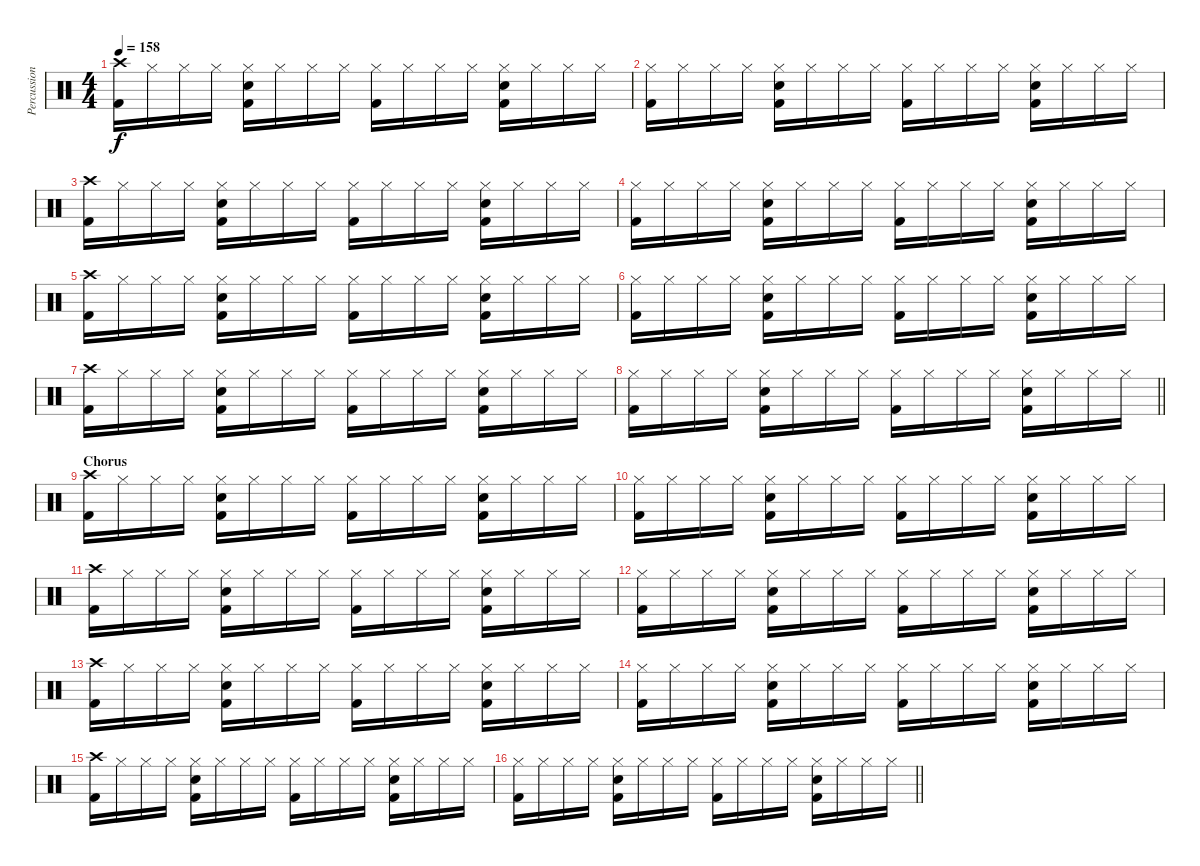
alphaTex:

\track ("Percussion" "Percussion") {instrument percussion}
\staff {score}
\articulation defaults
\ts (4 4)
\tempo 158
\clef neutral
\ks c
("Crash high (hit)" "Kick (hit) 2").16{dy f} "Hi-Hat (closed)".16 "Hi-Hat (closed)".16 "Hi-Hat (closed)".16 ("Hi-Hat (closed)" "Electric Snare (hit)" "Kick (hit) 2").16 "Hi-Hat (closed)".16 "Hi-Hat (closed)".16 "Hi-Hat (closed)".16 ("Hi-Hat (closed)" "Kick (hit) 2").16 "Hi-Hat (closed)".16 "Hi-Hat (closed)".16 "Hi-Hat (closed)".16 ("Hi-Hat (closed)" "Electric Snare (hit)" "Kick (hit) 2").16 "Hi-Hat (closed)".16 "Hi-Hat (closed)".16 "Hi-Hat (closed)".16 |
("Hi-Hat (closed)" "Kick (hit) 2").16 "Hi-Hat (closed)".16 "Hi-Hat (closed)".16 "Hi-Hat (closed)".16 ("Hi-Hat (closed)" "Electric Snare (hit)" "Kick (hit) 2").16 "Hi-Hat (closed)".16 "Hi-Hat (closed)".16 "Hi-Hat (closed)".16 ("Hi-Hat (closed)" "Kick (hit) 2").16 "Hi-Hat (closed)".16 "Hi-Hat (closed)".16 "Hi-Hat (closed)".16 ("Hi-Hat (closed)" "Electric Snare (hit)" "Kick (hit) 2").16 "Hi-Hat (closed)".16 "Hi-Hat (closed)".16 "Hi-Hat (closed)".16 |
("Crash high (hit)" "Kick (hit) 2").16 "Hi-Hat (closed)".16 "Hi-Hat (closed)".16 "Hi-Hat (closed)".16 ("Hi-Hat (closed)" "Electric Snare (hit)" "Kick (hit) 2").16 "Hi-Hat (closed)".16 "Hi-Hat (closed)".16 "Hi-Hat (closed)".16 ("Hi-Hat (closed)" "Kick (hit) 2").16 "Hi-Hat (closed)".16 "Hi-Hat (closed)".16 "Hi-Hat (closed)".16 ("Hi-Hat (closed)" "Electric Snare (hit)" "Kick (hit) 2").16 "Hi-Hat (closed)".16 "Hi-Hat (closed)".16 "Hi-Hat (closed)".16 |
("Hi-Hat (closed)" "Kick (hit) 2").16 "Hi-Hat (closed)".16 "Hi-Hat (closed)".16 "Hi-Hat (closed)".16 ("Hi-Hat (closed)" "Electric Snare (hit)" "Kick (hit) 2").16 "Hi-Hat (closed)".16 "Hi-Hat (closed)".16 "Hi-Hat (closed)".16 ("Hi-Hat (closed)" "Kick (hit) 2").16 "Hi-Hat (closed)".16 "Hi-Hat (closed)".16 "Hi-Hat (closed)".16 ("Hi-Hat (closed)" "Electric Snare (hit)" "Kick (hit) 2").16 "Hi-Hat (closed)".16 "Hi-Hat (closed)".16 "Hi-Hat (closed)".16 |
("Crash high (hit)" "Kick (hit) 2").16 "Hi-Hat (closed)".16 "Hi-Hat (closed)".16 "Hi-Hat (closed)".16 ("Hi-Hat (closed)" "Electric Snare (hit)" "Kick (hit) 2").16 "Hi-Hat (closed)".16 "Hi-Hat (closed)".16 "Hi-Hat (closed)".16 ("Hi-Hat (closed)" "Kick (hit) 2").16 "Hi-Hat (closed)".16 "Hi-Hat (closed)".16 "Hi-Hat (closed)".16 ("Hi-Hat (closed)" "Electric Snare (hit)" "Kick (hit) 2").16 "Hi-Hat (closed)".16 "Hi-Hat (closed)".16 "Hi-Hat (closed)".16 |
("Hi-Hat (closed)" "Kick (hit) 2").16 "Hi-Hat (closed)".16 "Hi-Hat (closed)".16 "Hi-Hat (closed)".16 ("Hi-Hat (closed)" "Electric Snare (hit)" "Kick (hit) 2").16 "Hi-Hat (closed)".16 "Hi-Hat (closed)".16 "Hi-Hat (closed)".16 ("Hi-Hat (closed)" "Kick (hit) 2").16 "Hi-Hat (closed)".16 "Hi-Hat (closed)".16 "Hi-Hat (closed)".16 ("Hi-Hat (closed)" "Electric Snare (hit)" "Kick (hit) 2").16 "Hi-Hat (closed)".16 "Hi-Hat (closed)".16 "Hi-Hat (closed)".16 |
("Crash high (hit)" "Kick (hit) 2").16 "Hi-Hat (closed)".16 "Hi-Hat (closed)".16 "Hi-Hat (closed)".16 ("Hi-Hat (closed)" "Electric Snare (hit)" "Kick (hit) 2").16 "Hi-Hat (closed)".16 "Hi-Hat (closed)".16 "Hi-Hat (closed)".16 ("Hi-Hat (closed)" "Kick (hit) 2").16 "Hi-Hat (closed)".16 "Hi-Hat (closed)".16 "Hi-Hat (closed)".16 ("Hi-Hat (closed)" "Electric Snare (hit)" "Kick (hit) 2").16 "Hi-Hat (closed)".16 "Hi-Hat (closed)".16 "Hi-Hat (closed)".16 |
\barLineRight lightlight
("Hi-Hat (closed)" "Kick (hit) 2").16 "Hi-Hat (closed)".16 "Hi-Hat (closed)".16 "Hi-Hat (closed)".16 ("Hi-Hat (closed)" "Electric Snare (hit)" "Kick (hit) 2").16 "Hi-Hat (closed)".16 "Hi-Hat (closed)".16 "Hi-Hat (closed)".16 ("Hi-Hat (closed)" "Kick (hit) 2").16 "Hi-Hat (closed)".16 "Hi-Hat (closed)".16 "Hi-Hat (closed)".16 ("Hi-Hat (closed)" "Electric Snare (hit)" "Kick (hit) 2").16 "Hi-Hat (closed)".16 "Hi-Hat (closed)".16 "Hi-Hat (closed)".16 |
\section ("" "Chorus")
("Crash high (hit)" "Kick (hit) 2").16 "Hi-Hat (closed)".16 "Hi-Hat (closed)".16 "Hi-Hat (closed)".16 ("Hi-Hat (closed)" "Electric Snare (hit)" "Kick (hit) 2").16 "Hi-Hat (closed)".16 "Hi-Hat (closed)".16 "Hi-Hat (closed)".16 ("Hi-Hat (closed)" "Kick (hit) 2").16 "Hi-Hat (closed)".16 "Hi-Hat (closed)".16 "Hi-Hat (closed)".16 ("Hi-Hat (closed)" "Electric Snare (hit)" "Kick (hit) 2").16 "Hi-Hat (closed)".16 "Hi-Hat (closed)".16 "Hi-Hat (closed)".16 |
("Hi-Hat (closed)" "Kick (hit) 2").16 "Hi-Hat (closed)".16 "Hi-Hat (closed)".16 "Hi-Hat (closed)".16 ("Hi-Hat (closed)" "Electric Snare (hit)" "Kick (hit) 2").16 "Hi-Hat (closed)".16 "Hi-Hat (closed)".16 "Hi-Hat (closed)".16 ("Hi-Hat (closed)" "Kick (hit) 2").16 "Hi-Hat (closed)".16 "Hi-Hat (closed)".16 "Hi-Hat (closed)".16 ("Hi-Hat (closed)" "Electric Snare (hit)" "Kick (hit) 2").16 "Hi-Hat (closed)".16 "Hi-Hat (closed)".16 "Hi-Hat (closed)".16 |
("Crash high (hit)" "Kick (hit) 2").16 "Hi-Hat (closed)".16 "Hi-Hat (closed)".16 "Hi-Hat (closed)".16 ("Hi-Hat (closed)" "Electric Snare (hit)" "Kick (hit) 2").16 "Hi-Hat (closed)".16 "Hi-Hat (closed)".16 "Hi-Hat (closed)".16 ("Hi-Hat (closed)" "Kick (hit) 2").16 "Hi-Hat (closed)".16 "Hi-Hat (closed)".16 "Hi-Hat (closed)".16 ("Hi-Hat (closed)" "Electric Snare (hit)" "Kick (hit) 2").16 "Hi-Hat (closed)".16 "Hi-Hat (closed)".16 "Hi-Hat (closed)".16 |
("Hi-Hat (closed)" "Kick (hit) 2").16 "Hi-Hat (closed)".16 "Hi-Hat (closed)".16 "Hi-Hat (closed)".16 ("Hi-Hat (closed)" "Electric Snare (hit)" "Kick (hit) 2").16 "Hi-Hat (closed)".16 "Hi-Hat (closed)".16 "Hi-Hat (closed)".16 ("Hi-Hat (closed)" "Kick (hit) 2").16 "Hi-Hat (closed)".16 "Hi-Hat (closed)".16 "Hi-Hat (closed)".16 ("Hi-Hat (closed)" "Electric Snare (hit)" "Kick (hit) 2").16 "Hi-Hat (closed)".16 "Hi-Hat (closed)".16 "Hi-Hat (closed)".16 |
("Crash high (hit)" "Kick (hit) 2").16 "Hi-Hat (closed)".16 "Hi-Hat (closed)".16 "Hi-Hat (closed)".16 ("Hi-Hat (closed)" "Electric Snare (hit)" "Kick (hit) 2").16 "Hi-Hat (closed)".16 "Hi-Hat (closed)".16 "Hi-Hat (closed)".16 ("Hi-Hat (closed)" "Kick (hit) 2").16 "Hi-Hat (closed)".16 "Hi-Hat (closed)".16 "Hi-Hat (closed)".16 ("Hi-Hat (closed)" "Electric Snare (hit)" "Kick (hit) 2").16 "Hi-Hat (closed)".16 "Hi-Hat (closed)".16 "Hi-Hat (closed)".16 |
("Hi-Hat (closed)" "Kick (hit) 2").16 "Hi-Hat (closed)".16 "Hi-Hat (closed)".16 "Hi-Hat (closed)".16 ("Hi-Hat (closed)" "Electric Snare (hit)" "Kick (hit) 2").16 "Hi-Hat (closed)".16 "Hi-Hat (closed)".16 "Hi-Hat (closed)".16 ("Hi-Hat (closed)" "Kick (hit) 2").16 "Hi-Hat (closed)".16 "Hi-Hat (closed)".16 "Hi-Hat (closed)".16 ("Hi-Hat (closed)" "Electric Snare (hit)" "Kick (hit) 2").16 "Hi-Hat (closed)".16 "Hi-Hat (closed)".16 "Hi-Hat (closed)".16 |
("Crash high (hit)" "Kick (hit) 2").16 "Hi-Hat (closed)".16 "Hi-Hat (closed)".16 "Hi-Hat (closed)".16 ("Hi-Hat (closed)" "Electric Snare (hit)" "Kick (hit) 2").16 "Hi-Hat (closed)".16 "Hi-Hat (closed)".16 "Hi-Hat (closed)".16 ("Hi-Hat (closed)" "Kick (hit) 2").16 "Hi-Hat (closed)".16 "Hi-Hat (closed)".16 "Hi-Hat (closed)".16 ("Hi-Hat (closed)" "Electric Snare (hit)" "Kick (hit) 2").16 "Hi-Hat (closed)".16 "Hi-Hat (closed)".16 "Hi-Hat (closed)".16 |
\barLineRight lightlight
("Hi-Hat (closed)" "Kick (hit) 2").16 "Hi-Hat (closed)".16 "Hi-Hat (closed)".16 "Hi-Hat (closed)".16 ("Hi-Hat (closed)" "Electric Snare (hit)" "Kick (hit) 2").16 "Hi-Hat (closed)".16 "Hi-Hat (closed)".16 "Hi-Hat (closed)".16 ("Hi-Hat (closed)" "Kick (hit) 2").16 "Hi-Hat (closed)".16 "Hi-Hat (closed)".16 "Hi-Hat (closed)".16 ("Hi-Hat (closed)" "Electric Snare (hit)" "Kick (hit) 2").16 "Hi-Hat (closed)".16 "Hi-Hat (closed)".16 "Hi-Hat (closed)".16
